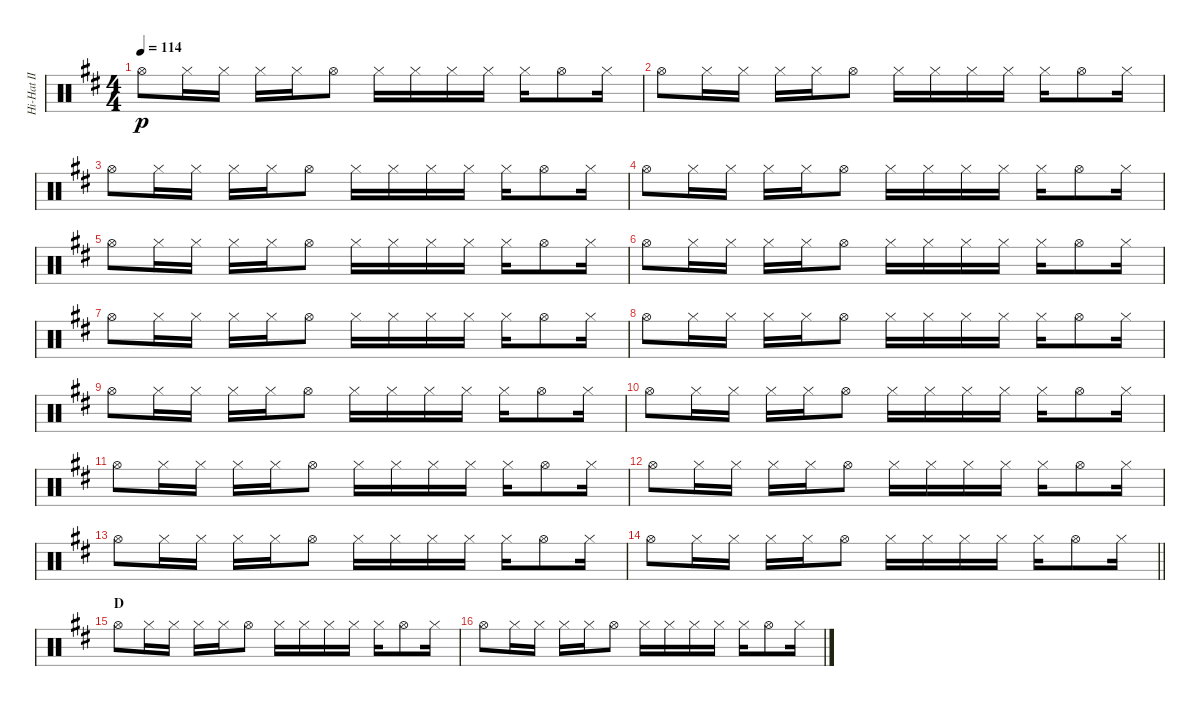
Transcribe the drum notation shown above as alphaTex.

\track ("Hi-Hat II" "Hi-Hat II") {instrument percussion}
\staff {score}
\articulation defaults
\ts (4 4)
\tempo 114
\clef neutral
\ks d "Hi-Hat (open)".8{dy p} "Hi-Hat (closed)".16 "Hi-Hat (closed)".16 "Hi-Hat (closed)".16 "Hi-Hat (closed)".16 "Hi-Hat (open)".8 "Hi-Hat (closed)".16 "Hi-Hat (closed)".16 "Hi-Hat (closed)".16 "Hi-Hat (closed)".16 "Hi-Hat (closed)".16 "Hi-Hat (open)".8 "Hi-Hat (closed)".16
|
"Hi-Hat (open)".8 "Hi-Hat (closed)".16 "Hi-Hat (closed)".16 "Hi-Hat (closed)".16 "Hi-Hat (closed)".16 "Hi-Hat (open)".8 "Hi-Hat (closed)".16 "Hi-Hat (closed)".16 "Hi-Hat (closed)".16 "Hi-Hat (closed)".16 "Hi-Hat (closed)".16 "Hi-Hat (open)".8 "Hi-Hat (closed)".16 |
"Hi-Hat (open)".8 "Hi-Hat (closed)".16 "Hi-Hat (closed)".16 "Hi-Hat (closed)".16 "Hi-Hat (closed)".16 "Hi-Hat (open)".8 "Hi-Hat (closed)".16 "Hi-Hat (closed)".16 "Hi-Hat (closed)".16 "Hi-Hat (closed)".16 "Hi-Hat (closed)".16 "Hi-Hat (open)".8 "Hi-Hat (closed)".16 |
"Hi-Hat (open)".8 "Hi-Hat (closed)".16 "Hi-Hat (closed)".16 "Hi-Hat (closed)".16 "Hi-Hat (closed)".16 "Hi-Hat (open)".8 "Hi-Hat (closed)".16 "Hi-Hat (closed)".16 "Hi-Hat (closed)".16 "Hi-Hat (closed)".16 "Hi-Hat (closed)".16 "Hi-Hat (open)".8 "Hi-Hat (closed)".16 |
"Hi-Hat (open)".8 "Hi-Hat (closed)".16 "Hi-Hat (closed)".16 "Hi-Hat (closed)".16 "Hi-Hat (closed)".16 "Hi-Hat (open)".8 "Hi-Hat (closed)".16 "Hi-Hat (closed)".16 "Hi-Hat (closed)".16 "Hi-Hat (closed)".16 "Hi-Hat (closed)".16 "Hi-Hat (open)".8 "Hi-Hat (closed)".16 |
"Hi-Hat (open)".8 "Hi-Hat (closed)".16 "Hi-Hat (closed)".16 "Hi-Hat (closed)".16 "Hi-Hat (closed)".16 "Hi-Hat (open)".8 "Hi-Hat (closed)".16 "Hi-Hat (closed)".16 "Hi-Hat (closed)".16 "Hi-Hat (closed)".16 "Hi-Hat (closed)".16 "Hi-Hat (open)".8 "Hi-Hat (closed)".16 |
"Hi-Hat (open)".8 "Hi-Hat (closed)".16 "Hi-Hat (closed)".16 "Hi-Hat (closed)".16 "Hi-Hat (closed)".16 "Hi-Hat (open)".8 "Hi-Hat (closed)".16 "Hi-Hat (closed)".16 "Hi-Hat (closed)".16 "Hi-Hat (closed)".16 "Hi-Hat (closed)".16 "Hi-Hat (open)".8 "Hi-Hat (closed)".16 |
"Hi-Hat (open)".8 "Hi-Hat (closed)".16 "Hi-Hat (closed)".16 "Hi-Hat (closed)".16 "Hi-Hat (closed)".16 "Hi-Hat (open)".8 "Hi-Hat (closed)".16 "Hi-Hat (closed)".16 "Hi-Hat (closed)".16 "Hi-Hat (closed)".16 "Hi-Hat (closed)".16 "Hi-Hat (open)".8 "Hi-Hat (closed)".16 |
"Hi-Hat (open)".8 "Hi-Hat (closed)".16 "Hi-Hat (closed)".16 "Hi-Hat (closed)".16 "Hi-Hat (closed)".16 "Hi-Hat (open)".8 "Hi-Hat (closed)".16 "Hi-Hat (closed)".16 "Hi-Hat (closed)".16 "Hi-Hat (closed)".16 "Hi-Hat (closed)".16 "Hi-Hat (open)".8 "Hi-Hat (closed)".16 |
"Hi-Hat (open)".8 "Hi-Hat (closed)".16 "Hi-Hat (closed)".16 "Hi-Hat (closed)".16 "Hi-Hat (closed)".16 "Hi-Hat (open)".8 "Hi-Hat (closed)".16 "Hi-Hat (closed)".16 "Hi-Hat (closed)".16 "Hi-Hat (closed)".16 "Hi-Hat (closed)".16 "Hi-Hat (open)".8 "Hi-Hat (closed)".16 |
"Hi-Hat (open)".8 "Hi-Hat (closed)".16 "Hi-Hat (closed)".16 "Hi-Hat (closed)".16 "Hi-Hat (closed)".16 "Hi-Hat (open)".8 "Hi-Hat (closed)".16 "Hi-Hat (closed)".16 "Hi-Hat (closed)".16 "Hi-Hat (closed)".16 "Hi-Hat (closed)".16 "Hi-Hat (open)".8 "Hi-Hat (closed)".16 |
"Hi-Hat (open)".8 "Hi-Hat (closed)".16 "Hi-Hat (closed)".16 "Hi-Hat (closed)".16 "Hi-Hat (closed)".16 "Hi-Hat (open)".8 "Hi-Hat (closed)".16 "Hi-Hat (closed)".16 "Hi-Hat (closed)".16 "Hi-Hat (closed)".16 "Hi-Hat (closed)".16 "Hi-Hat (open)".8 "Hi-Hat (closed)".16 |
"Hi-Hat (open)".8 "Hi-Hat (closed)".16 "Hi-Hat (closed)".16 "Hi-Hat (closed)".16 "Hi-Hat (closed)".16 "Hi-Hat (open)".8 "Hi-Hat (closed)".16 "Hi-Hat (closed)".16 "Hi-Hat (closed)".16 "Hi-Hat (closed)".16 "Hi-Hat (closed)".16 "Hi-Hat (open)".8 "Hi-Hat (closed)".16 |
\barLineRight lightlight "Hi-Hat (open)".8 "Hi-Hat (closed)".16 "Hi-Hat (closed)".16 "Hi-Hat (closed)".16 "Hi-Hat (closed)".16 "Hi-Hat (open)".8 "Hi-Hat (closed)".16 "Hi-Hat (closed)".16 "Hi-Hat (closed)".16 "Hi-Hat (closed)".16 "Hi-Hat (closed)".16 "Hi-Hat (open)".8 "Hi-Hat (closed)".16
|
\section ("" "D")
"Hi-Hat (open)".8 "Hi-Hat (closed)".16 "Hi-Hat (closed)".16 "Hi-Hat (closed)".16 "Hi-Hat (closed)".16 "Hi-Hat (open)".8 "Hi-Hat (closed)".16 "Hi-Hat (closed)".16 "Hi-Hat (closed)".16 "Hi-Hat (closed)".16 "Hi-Hat (closed)".16 "Hi-Hat (open)".8 "Hi-Hat (closed)".16 |
"Hi-Hat (open)".8 "Hi-Hat (closed)".16 "Hi-Hat (closed)".16 "Hi-Hat (closed)".16 "Hi-Hat (closed)".16 "Hi-Hat (open)".8 "Hi-Hat (closed)".16 "Hi-Hat (closed)".16 "Hi-Hat (closed)".16 "Hi-Hat (closed)".16 "Hi-Hat (closed)".16 "Hi-Hat (open)".8 "Hi-Hat (closed)".16
